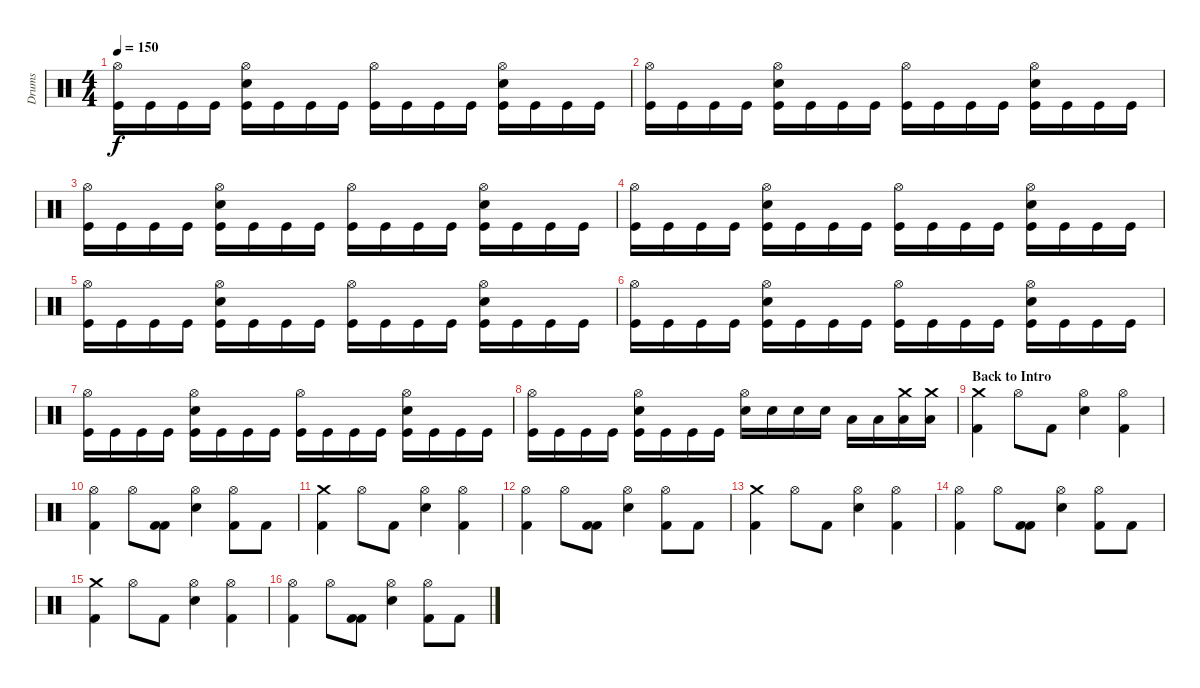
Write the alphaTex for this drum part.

\track ("Drums" "Drums") {instrument percussion}
\staff {score}
\articulation defaults
\ts (4 4)
\tempo 150
\clef neutral
\ks c
("Hi-Hat (open)" "Kick (hit)").16{dy f} "Kick (hit)".16 "Kick (hit)".16 "Kick (hit)".16 ("Hi-Hat (open)" "Snare (hit) 2" "Kick (hit)").16 "Kick (hit)".16 "Kick (hit)".16 "Kick (hit)".16 ("Hi-Hat (open)" "Kick (hit)").16 "Kick (hit)".16 "Kick (hit)".16 "Kick (hit)".16 ("Hi-Hat (open)" "Snare (hit) 2" "Kick (hit)").16 "Kick (hit)".16 "Kick (hit)".16 "Kick (hit)".16 |
("Hi-Hat (open)" "Kick (hit)").16 "Kick (hit)".16 "Kick (hit)".16 "Kick (hit)".16 ("Hi-Hat (open)" "Snare (hit) 2" "Kick (hit)").16 "Kick (hit)".16 "Kick (hit)".16 "Kick (hit)".16 ("Hi-Hat (open)" "Kick (hit)").16 "Kick (hit)".16 "Kick (hit)".16 "Kick (hit)".16 ("Hi-Hat (open)" "Snare (hit) 2" "Kick (hit)").16 "Kick (hit)".16 "Kick (hit)".16 "Kick (hit)".16 |
("Hi-Hat (open)" "Kick (hit)").16 "Kick (hit)".16 "Kick (hit)".16 "Kick (hit)".16 ("Hi-Hat (open)" "Snare (hit) 2" "Kick (hit)").16 "Kick (hit)".16 "Kick (hit)".16 "Kick (hit)".16 ("Hi-Hat (open)" "Kick (hit)").16 "Kick (hit)".16 "Kick (hit)".16 "Kick (hit)".16 ("Hi-Hat (open)" "Snare (hit) 2" "Kick (hit)").16 "Kick (hit)".16 "Kick (hit)".16 "Kick (hit)".16 |
("Hi-Hat (open)" "Kick (hit)").16 "Kick (hit)".16 "Kick (hit)".16 "Kick (hit)".16 ("Hi-Hat (open)" "Snare (hit) 2" "Kick (hit)").16 "Kick (hit)".16 "Kick (hit)".16 "Kick (hit)".16 ("Hi-Hat (open)" "Kick (hit)").16 "Kick (hit)".16 "Kick (hit)".16 "Kick (hit)".16 ("Hi-Hat (open)" "Snare (hit) 2" "Kick (hit)").16 "Kick (hit)".16 "Kick (hit)".16 "Kick (hit)".16 |
("Hi-Hat (open)" "Kick (hit)").16 "Kick (hit)".16 "Kick (hit)".16 "Kick (hit)".16 ("Hi-Hat (open)" "Snare (hit) 2" "Kick (hit)").16 "Kick (hit)".16 "Kick (hit)".16 "Kick (hit)".16 ("Hi-Hat (open)" "Kick (hit)").16 "Kick (hit)".16 "Kick (hit)".16 "Kick (hit)".16 ("Hi-Hat (open)" "Snare (hit) 2" "Kick (hit)").16 "Kick (hit)".16 "Kick (hit)".16 "Kick (hit)".16 |
("Hi-Hat (open)" "Kick (hit)").16 "Kick (hit)".16 "Kick (hit)".16 "Kick (hit)".16 ("Hi-Hat (open)" "Snare (hit) 2" "Kick (hit)").16 "Kick (hit)".16 "Kick (hit)".16 "Kick (hit)".16 ("Hi-Hat (open)" "Kick (hit)").16 "Kick (hit)".16 "Kick (hit)".16 "Kick (hit)".16 ("Hi-Hat (open)" "Snare (hit) 2" "Kick (hit)").16 "Kick (hit)".16 "Kick (hit)".16 "Kick (hit)".16 |
("Hi-Hat (open)" "Kick (hit)").16 "Kick (hit)".16 "Kick (hit)".16 "Kick (hit)".16 ("Hi-Hat (open)" "Snare (hit) 2" "Kick (hit)").16 "Kick (hit)".16 "Kick (hit)".16 "Kick (hit)".16 ("Hi-Hat (open)" "Kick (hit)").16 "Kick (hit)".16 "Kick (hit)".16 "Kick (hit)".16 ("Hi-Hat (open)" "Snare (hit) 2" "Kick (hit)").16 "Kick (hit)".16 "Kick (hit)".16 "Kick (hit)".16 |
("Hi-Hat (open)" "Kick (hit)").16 "Kick (hit)".16 "Kick (hit)".16 "Kick (hit)".16 ("Hi-Hat (open)" "Snare (hit) 2" "Kick (hit)").16 "Kick (hit)".16 "Kick (hit)".16 "Kick (hit)".16 ("Hi-Hat (open)" "Electric Snare (hit)").16 "Electric Snare (hit)".16 "Electric Snare (hit)".16 "Electric Snare (hit)".16 "Low Tom (hit)".16 "Low Tom (hit)".16 ("Low Tom (hit)" "Crash medium (hit)").16 ("Low Tom (hit)" "Crash medium (hit)").16 |
\section ("" "Back to Intro")
("Crash medium (hit)" "Kick (hit) 2").4 "Hi-Hat (open)".8 "Kick (hit) 2".8 ("Hi-Hat (open)" "Electric Snare (hit)").4 ("Hi-Hat (open)" "Kick (hit) 2").4 |
("Hi-Hat (open)" "Kick (hit) 2").4 "Hi-Hat (open)".8 ("Kick (hit) 2" "Kick (hit) 2").8 ("Hi-Hat (open)" "Electric Snare (hit)").4 ("Hi-Hat (open)" "Kick (hit) 2").8 "Kick (hit) 2".8 |
("Crash medium (hit)" "Kick (hit) 2").4 "Hi-Hat (open)".8 "Kick (hit) 2".8 ("Hi-Hat (open)" "Electric Snare (hit)").4 ("Hi-Hat (open)" "Kick (hit) 2").4 |
("Hi-Hat (open)" "Kick (hit) 2").4 "Hi-Hat (open)".8 ("Kick (hit) 2" "Kick (hit) 2").8 ("Hi-Hat (open)" "Electric Snare (hit)").4 ("Hi-Hat (open)" "Kick (hit) 2").8 "Kick (hit) 2".8 |
("Crash medium (hit)" "Kick (hit) 2").4 "Hi-Hat (open)".8 "Kick (hit) 2".8 ("Hi-Hat (open)" "Electric Snare (hit)").4 ("Hi-Hat (open)" "Kick (hit) 2").4 |
("Hi-Hat (open)" "Kick (hit) 2").4 "Hi-Hat (open)".8 ("Kick (hit) 2" "Kick (hit) 2").8 ("Hi-Hat (open)" "Electric Snare (hit)").4 ("Hi-Hat (open)" "Kick (hit) 2").8 "Kick (hit) 2".8 |
("Crash medium (hit)" "Kick (hit) 2").4 "Hi-Hat (open)".8 "Kick (hit) 2".8 ("Hi-Hat (open)" "Electric Snare (hit)").4 ("Hi-Hat (open)" "Kick (hit) 2").4 |
("Hi-Hat (open)" "Kick (hit) 2").4 "Hi-Hat (open)".8 ("Kick (hit) 2" "Kick (hit) 2").8 ("Hi-Hat (open)" "Electric Snare (hit)").4 ("Hi-Hat (open)" "Kick (hit) 2").8 "Kick (hit) 2".8
